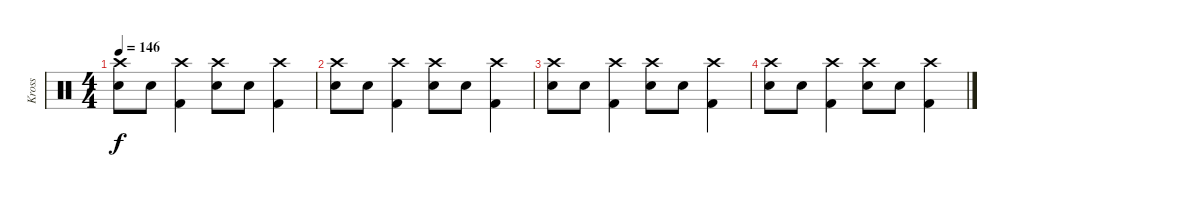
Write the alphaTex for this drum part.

\track ("Kross" "Kross") {instrument percussion}
\staff {score}
\articulation defaults
\ts (4 4)
\tempo 146
\clef neutral
\ks c
("Crash high (hit)" "Snare (hit) 2").8{dy f} "Snare (hit) 2".8 ("Crash high (hit)" "Kick (hit) 2").4 ("Crash high (hit)" "Snare (hit) 2").8 "Snare (hit) 2".8 ("Crash high (hit)" "Kick (hit) 2").4 |
("Crash high (hit)" "Snare (hit) 2").8 "Snare (hit) 2".8 ("Crash high (hit)" "Kick (hit) 2").4 ("Crash high (hit)" "Snare (hit) 2").8 "Snare (hit) 2".8 ("Crash high (hit)" "Kick (hit) 2").4 |
("Crash high (hit)" "Snare (hit) 2").8 "Snare (hit) 2".8 ("Crash high (hit)" "Kick (hit) 2").4 ("Crash high (hit)" "Snare (hit) 2").8 "Snare (hit) 2".8 ("Crash high (hit)" "Kick (hit) 2").4 |
("Crash high (hit)" "Snare (hit) 2").8 "Snare (hit) 2".8 ("Crash high (hit)" "Kick (hit) 2").4 ("Crash high (hit)" "Snare (hit) 2").8 "Snare (hit) 2".8 ("Crash high (hit)" "Kick (hit) 2").4
